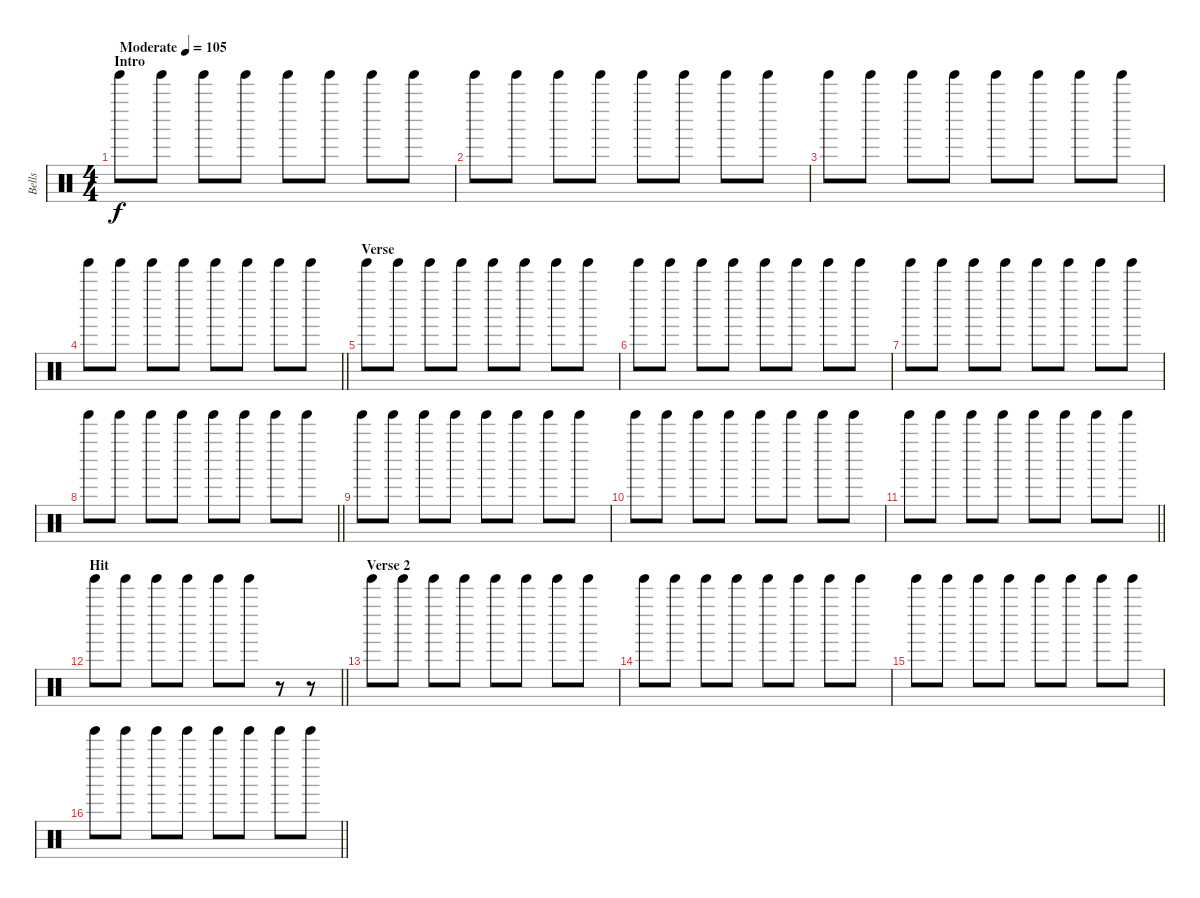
\track ("Bells" "Bells") {instrument percussion}
\staff {score}
\articulation defaults
\ts (4 4)
\section ("" "Intro")
\tempo (105 "Moderate")
\clef neutral
\ks c "Tinkle Bell (hit)".8{dy f} "Tinkle Bell (hit)".8 "Tinkle Bell (hit)".8 "Tinkle Bell (hit)".8 "Tinkle Bell (hit)".8 "Tinkle Bell (hit)".8 "Tinkle Bell (hit)".8 "Tinkle Bell (hit)".8
|
"Tinkle Bell (hit)".8 "Tinkle Bell (hit)".8 "Tinkle Bell (hit)".8 "Tinkle Bell (hit)".8 "Tinkle Bell (hit)".8 "Tinkle Bell (hit)".8 "Tinkle Bell (hit)".8 "Tinkle Bell (hit)".8 |
"Tinkle Bell (hit)".8 "Tinkle Bell (hit)".8 "Tinkle Bell (hit)".8 "Tinkle Bell (hit)".8 "Tinkle Bell (hit)".8 "Tinkle Bell (hit)".8 "Tinkle Bell (hit)".8 "Tinkle Bell (hit)".8 |
\barLineRight lightlight "Tinkle Bell (hit)".8 "Tinkle Bell (hit)".8 "Tinkle Bell (hit)".8 "Tinkle Bell (hit)".8 "Tinkle Bell (hit)".8 "Tinkle Bell (hit)".8 "Tinkle Bell (hit)".8 "Tinkle Bell (hit)".8
|
\section ("" "Verse")
"Tinkle Bell (hit)".8 "Tinkle Bell (hit)".8 "Tinkle Bell (hit)".8 "Tinkle Bell (hit)".8 "Tinkle Bell (hit)".8 "Tinkle Bell (hit)".8 "Tinkle Bell (hit)".8 "Tinkle Bell (hit)".8 |
"Tinkle Bell (hit)".8 "Tinkle Bell (hit)".8 "Tinkle Bell (hit)".8 "Tinkle Bell (hit)".8 "Tinkle Bell (hit)".8 "Tinkle Bell (hit)".8 "Tinkle Bell (hit)".8 "Tinkle Bell (hit)".8 |
"Tinkle Bell (hit)".8 "Tinkle Bell (hit)".8 "Tinkle Bell (hit)".8 "Tinkle Bell (hit)".8 "Tinkle Bell (hit)".8 "Tinkle Bell (hit)".8 "Tinkle Bell (hit)".8 "Tinkle Bell (hit)".8 |
\barLineRight lightlight "Tinkle Bell (hit)".8 "Tinkle Bell (hit)".8 "Tinkle Bell (hit)".8 "Tinkle Bell (hit)".8 "Tinkle Bell (hit)".8 "Tinkle Bell (hit)".8 "Tinkle Bell (hit)".8 "Tinkle Bell (hit)".8
|
"Tinkle Bell (hit)".8 "Tinkle Bell (hit)".8 "Tinkle Bell (hit)".8 "Tinkle Bell (hit)".8 "Tinkle Bell (hit)".8 "Tinkle Bell (hit)".8 "Tinkle Bell (hit)".8 "Tinkle Bell (hit)".8 |
"Tinkle Bell (hit)".8 "Tinkle Bell (hit)".8 "Tinkle Bell (hit)".8 "Tinkle Bell (hit)".8 "Tinkle Bell (hit)".8 "Tinkle Bell (hit)".8 "Tinkle Bell (hit)".8 "Tinkle Bell (hit)".8 |
\barLineRight lightlight "Tinkle Bell (hit)".8 "Tinkle Bell (hit)".8 "Tinkle Bell (hit)".8 "Tinkle Bell (hit)".8 "Tinkle Bell (hit)".8 "Tinkle Bell (hit)".8 "Tinkle Bell (hit)".8 "Tinkle Bell (hit)".8
|
\section ("" "Hit")
\barLineRight lightlight "Tinkle Bell (hit)".8 "Tinkle Bell (hit)".8 "Tinkle Bell (hit)".8 "Tinkle Bell (hit)".8 "Tinkle Bell (hit)".8 "Tinkle Bell (hit)".8
r.8 r.8 |
\section ("" "Verse 2")
"Tinkle Bell (hit)".8 "Tinkle Bell (hit)".8 "Tinkle Bell (hit)".8 "Tinkle Bell (hit)".8 "Tinkle Bell (hit)".8 "Tinkle Bell (hit)".8 "Tinkle Bell (hit)".8 "Tinkle Bell (hit)".8 |
"Tinkle Bell (hit)".8 "Tinkle Bell (hit)".8 "Tinkle Bell (hit)".8 "Tinkle Bell (hit)".8 "Tinkle Bell (hit)".8 "Tinkle Bell (hit)".8 "Tinkle Bell (hit)".8 "Tinkle Bell (hit)".8 |
"Tinkle Bell (hit)".8 "Tinkle Bell (hit)".8 "Tinkle Bell (hit)".8 "Tinkle Bell (hit)".8 "Tinkle Bell (hit)".8 "Tinkle Bell (hit)".8 "Tinkle Bell (hit)".8 "Tinkle Bell (hit)".8 |
\barLineRight lightlight "Tinkle Bell (hit)".8 "Tinkle Bell (hit)".8 "Tinkle Bell (hit)".8 "Tinkle Bell (hit)".8 "Tinkle Bell (hit)".8 "Tinkle Bell (hit)".8 "Tinkle Bell (hit)".8 "Tinkle Bell (hit)".8
